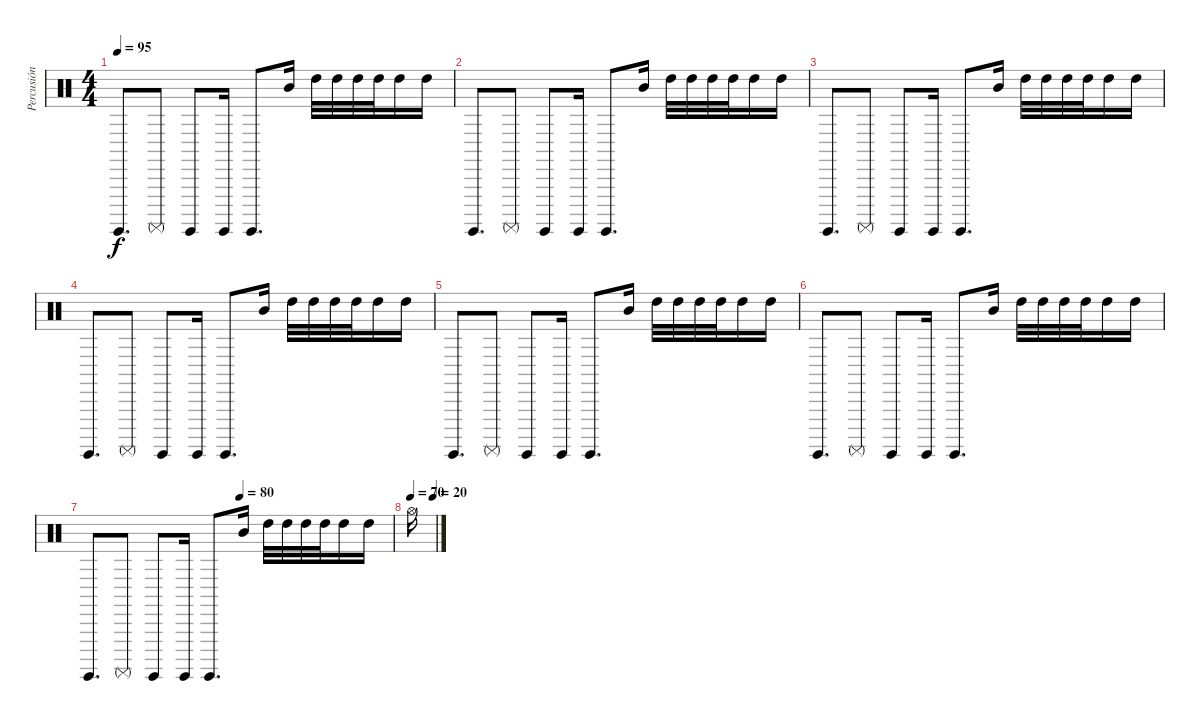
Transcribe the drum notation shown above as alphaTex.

\track ("Percusión - Leonardo Muñoz" "Percusión ") {instrument percussion}
\staff {score}
\articulation defaults
\ts (4 4)
\tempo 95
\clef neutral
\ks c "Surdo (hit)".8{d dy f} "Surdo (mute)".8 "Surdo (hit)".8 "Surdo (hit)".16 "Surdo (hit)".8{d} "Mid Tom (hit)".16 "High Tom (hit)".32 "High Tom (hit)".32 "High Tom (hit)".32 "High Tom (hit)".32 "High Tom (hit)".16 "High Tom (hit)".16
|
"Surdo (hit)".8{d} "Surdo (mute)".8 "Surdo (hit)".8 "Surdo (hit)".16 "Surdo (hit)".8{d} "Mid Tom (hit)".16 "High Tom (hit)".32 "High Tom (hit)".32 "High Tom (hit)".32 "High Tom (hit)".32 "High Tom (hit)".16 "High Tom (hit)".16 |
"Surdo (hit)".8{d} "Surdo (mute)".8 "Surdo (hit)".8 "Surdo (hit)".16 "Surdo (hit)".8{d} "Mid Tom (hit)".16 "High Tom (hit)".32 "High Tom (hit)".32 "High Tom (hit)".32 "High Tom (hit)".32 "High Tom (hit)".16 "High Tom (hit)".16 |
"Surdo (hit)".8{d} "Surdo (mute)".8 "Surdo (hit)".8 "Surdo (hit)".16 "Surdo (hit)".8{d} "Mid Tom (hit)".16 "High Tom (hit)".32 "High Tom (hit)".32 "High Tom (hit)".32 "High Tom (hit)".32 "High Tom (hit)".16 "High Tom (hit)".16 |
"Surdo (hit)".8{d} "Surdo (mute)".8 "Surdo (hit)".8 "Surdo (hit)".16 "Surdo (hit)".8{d} "Mid Tom (hit)".16 "High Tom (hit)".32 "High Tom (hit)".32 "High Tom (hit)".32 "High Tom (hit)".32 "High Tom (hit)".16 "High Tom (hit)".16 |
"Surdo (hit)".8{d} "Surdo (mute)".8 "Surdo (hit)".8 "Surdo (hit)".16 "Surdo (hit)".8{d} "Mid Tom (hit)".16 "High Tom (hit)".32 "High Tom (hit)".32 "High Tom (hit)".32 "High Tom (hit)".32 "High Tom (hit)".16 "High Tom (hit)".16 |
\tempo (80 0.5)
"Surdo (hit)".8{d} "Surdo (mute)".8 "Surdo (hit)".8 "Surdo (hit)".16 "Surdo (hit)".8{d} "Mid Tom (hit)".16 "High Tom (hit)".32 "High Tom (hit)".32 "High Tom (hit)".32 "High Tom (hit)".32 "High Tom (hit)".16 "High Tom (hit)".16 |
\tempo (20 0.90625)
\tempo (70)
"Hi-Hat (open)".16
